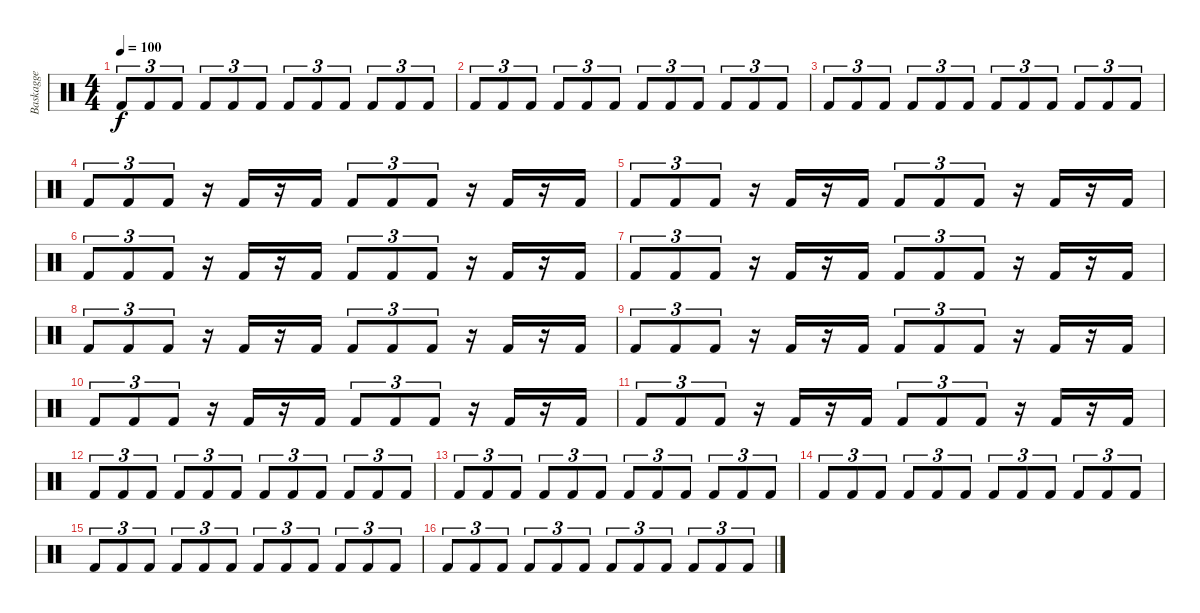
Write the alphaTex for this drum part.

\track ("Baskagge" "Baskagge") {instrument percussion}
\staff {score}
\articulation defaults
\ts (4 4)
\tempo 100
\clef neutral
\ks c "Kick (hit) 2".8{tu (3 2) dy f} "Kick (hit) 2".8{tu (3 2)} "Kick (hit) 2".8{tu (3 2)} "Kick (hit) 2".8{tu (3 2)} "Kick (hit) 2".8{tu (3 2)} "Kick (hit) 2".8{tu (3 2)} "Kick (hit) 2".8{tu (3 2)} "Kick (hit) 2".8{tu (3 2)} "Kick (hit) 2".8{tu (3 2)} "Kick (hit) 2".8{tu (3 2)} "Kick (hit) 2".8{tu (3 2)} "Kick (hit) 2".8{tu (3 2)}
|
"Kick (hit) 2".8{tu (3 2)} "Kick (hit) 2".8{tu (3 2)} "Kick (hit) 2".8{tu (3 2)} "Kick (hit) 2".8{tu (3 2)} "Kick (hit) 2".8{tu (3 2)} "Kick (hit) 2".8{tu (3 2)} "Kick (hit) 2".8{tu (3 2)} "Kick (hit) 2".8{tu (3 2)} "Kick (hit) 2".8{tu (3 2)} "Kick (hit) 2".8{tu (3 2)} "Kick (hit) 2".8{tu (3 2)} "Kick (hit) 2".8{tu (3 2)} |
"Kick (hit) 2".8{tu (3 2)} "Kick (hit) 2".8{tu (3 2)} "Kick (hit) 2".8{tu (3 2)} "Kick (hit) 2".8{tu (3 2)} "Kick (hit) 2".8{tu (3 2)} "Kick (hit) 2".8{tu (3 2)} "Kick (hit) 2".8{tu (3 2)} "Kick (hit) 2".8{tu (3 2)} "Kick (hit) 2".8{tu (3 2)} "Kick (hit) 2".8{tu (3 2)} "Kick (hit) 2".8{tu (3 2)} "Kick (hit) 2".8{tu (3 2)} |
"Kick (hit) 2".8{tu (3 2)} "Kick (hit) 2".8{tu (3 2)} "Kick (hit) 2".8{tu (3 2)} r.16 "Kick (hit) 2".16 r.16 "Kick (hit) 2".16 "Kick (hit) 2".8{tu (3 2)} "Kick (hit) 2".8{tu (3 2)} "Kick (hit) 2".8{tu (3 2)} r.16 "Kick (hit) 2".16 r.16 "Kick (hit) 2".16 |
"Kick (hit) 2".8{tu (3 2)} "Kick (hit) 2".8{tu (3 2)} "Kick (hit) 2".8{tu (3 2)} r.16 "Kick (hit) 2".16 r.16 "Kick (hit) 2".16 "Kick (hit) 2".8{tu (3 2)} "Kick (hit) 2".8{tu (3 2)} "Kick (hit) 2".8{tu (3 2)} r.16 "Kick (hit) 2".16 r.16 "Kick (hit) 2".16 |
"Kick (hit) 2".8{tu (3 2)} "Kick (hit) 2".8{tu (3 2)} "Kick (hit) 2".8{tu (3 2)} r.16 "Kick (hit) 2".16 r.16 "Kick (hit) 2".16 "Kick (hit) 2".8{tu (3 2)} "Kick (hit) 2".8{tu (3 2)} "Kick (hit) 2".8{tu (3 2)} r.16 "Kick (hit) 2".16 r.16 "Kick (hit) 2".16 |
"Kick (hit) 2".8{tu (3 2)} "Kick (hit) 2".8{tu (3 2)} "Kick (hit) 2".8{tu (3 2)} r.16 "Kick (hit) 2".16 r.16 "Kick (hit) 2".16 "Kick (hit) 2".8{tu (3 2)} "Kick (hit) 2".8{tu (3 2)} "Kick (hit) 2".8{tu (3 2)} r.16 "Kick (hit) 2".16 r.16 "Kick (hit) 2".16 |
"Kick (hit) 2".8{tu (3 2)} "Kick (hit) 2".8{tu (3 2)} "Kick (hit) 2".8{tu (3 2)} r.16 "Kick (hit) 2".16 r.16 "Kick (hit) 2".16 "Kick (hit) 2".8{tu (3 2)} "Kick (hit) 2".8{tu (3 2)} "Kick (hit) 2".8{tu (3 2)} r.16 "Kick (hit) 2".16 r.16 "Kick (hit) 2".16 |
"Kick (hit) 2".8{tu (3 2)} "Kick (hit) 2".8{tu (3 2)} "Kick (hit) 2".8{tu (3 2)} r.16 "Kick (hit) 2".16 r.16 "Kick (hit) 2".16 "Kick (hit) 2".8{tu (3 2)} "Kick (hit) 2".8{tu (3 2)} "Kick (hit) 2".8{tu (3 2)} r.16 "Kick (hit) 2".16 r.16 "Kick (hit) 2".16 |
"Kick (hit) 2".8{tu (3 2)} "Kick (hit) 2".8{tu (3 2)} "Kick (hit) 2".8{tu (3 2)} r.16 "Kick (hit) 2".16 r.16 "Kick (hit) 2".16 "Kick (hit) 2".8{tu (3 2)} "Kick (hit) 2".8{tu (3 2)} "Kick (hit) 2".8{tu (3 2)} r.16 "Kick (hit) 2".16 r.16 "Kick (hit) 2".16 |
"Kick (hit) 2".8{tu (3 2)} "Kick (hit) 2".8{tu (3 2)} "Kick (hit) 2".8{tu (3 2)} r.16 "Kick (hit) 2".16 r.16 "Kick (hit) 2".16 "Kick (hit) 2".8{tu (3 2)} "Kick (hit) 2".8{tu (3 2)} "Kick (hit) 2".8{tu (3 2)} r.16 "Kick (hit) 2".16 r.16 "Kick (hit) 2".16 |
"Kick (hit) 2".8{tu (3 2)} "Kick (hit) 2".8{tu (3 2)} "Kick (hit) 2".8{tu (3 2)} "Kick (hit) 2".8{tu (3 2)} "Kick (hit) 2".8{tu (3 2)} "Kick (hit) 2".8{tu (3 2)} "Kick (hit) 2".8{tu (3 2)} "Kick (hit) 2".8{tu (3 2)} "Kick (hit) 2".8{tu (3 2)} "Kick (hit) 2".8{tu (3 2)} "Kick (hit) 2".8{tu (3 2)} "Kick (hit) 2".8{tu (3 2)} |
"Kick (hit) 2".8{tu (3 2)} "Kick (hit) 2".8{tu (3 2)} "Kick (hit) 2".8{tu (3 2)} "Kick (hit) 2".8{tu (3 2)} "Kick (hit) 2".8{tu (3 2)} "Kick (hit) 2".8{tu (3 2)} "Kick (hit) 2".8{tu (3 2)} "Kick (hit) 2".8{tu (3 2)} "Kick (hit) 2".8{tu (3 2)} "Kick (hit) 2".8{tu (3 2)} "Kick (hit) 2".8{tu (3 2)} "Kick (hit) 2".8{tu (3 2)} |
"Kick (hit) 2".8{tu (3 2)} "Kick (hit) 2".8{tu (3 2)} "Kick (hit) 2".8{tu (3 2)} "Kick (hit) 2".8{tu (3 2)} "Kick (hit) 2".8{tu (3 2)} "Kick (hit) 2".8{tu (3 2)} "Kick (hit) 2".8{tu (3 2)} "Kick (hit) 2".8{tu (3 2)} "Kick (hit) 2".8{tu (3 2)} "Kick (hit) 2".8{tu (3 2)} "Kick (hit) 2".8{tu (3 2)} "Kick (hit) 2".8{tu (3 2)} |
"Kick (hit) 2".8{tu (3 2)} "Kick (hit) 2".8{tu (3 2)} "Kick (hit) 2".8{tu (3 2)} "Kick (hit) 2".8{tu (3 2)} "Kick (hit) 2".8{tu (3 2)} "Kick (hit) 2".8{tu (3 2)} "Kick (hit) 2".8{tu (3 2)} "Kick (hit) 2".8{tu (3 2)} "Kick (hit) 2".8{tu (3 2)} "Kick (hit) 2".8{tu (3 2)} "Kick (hit) 2".8{tu (3 2)} "Kick (hit) 2".8{tu (3 2)} |
"Kick (hit) 2".8{tu (3 2)} "Kick (hit) 2".8{tu (3 2)} "Kick (hit) 2".8{tu (3 2)} "Kick (hit) 2".8{tu (3 2)} "Kick (hit) 2".8{tu (3 2)} "Kick (hit) 2".8{tu (3 2)} "Kick (hit) 2".8{tu (3 2)} "Kick (hit) 2".8{tu (3 2)} "Kick (hit) 2".8{tu (3 2)} "Kick (hit) 2".8{tu (3 2)} "Kick (hit) 2".8{tu (3 2)} "Kick (hit) 2".8{tu (3 2)}
